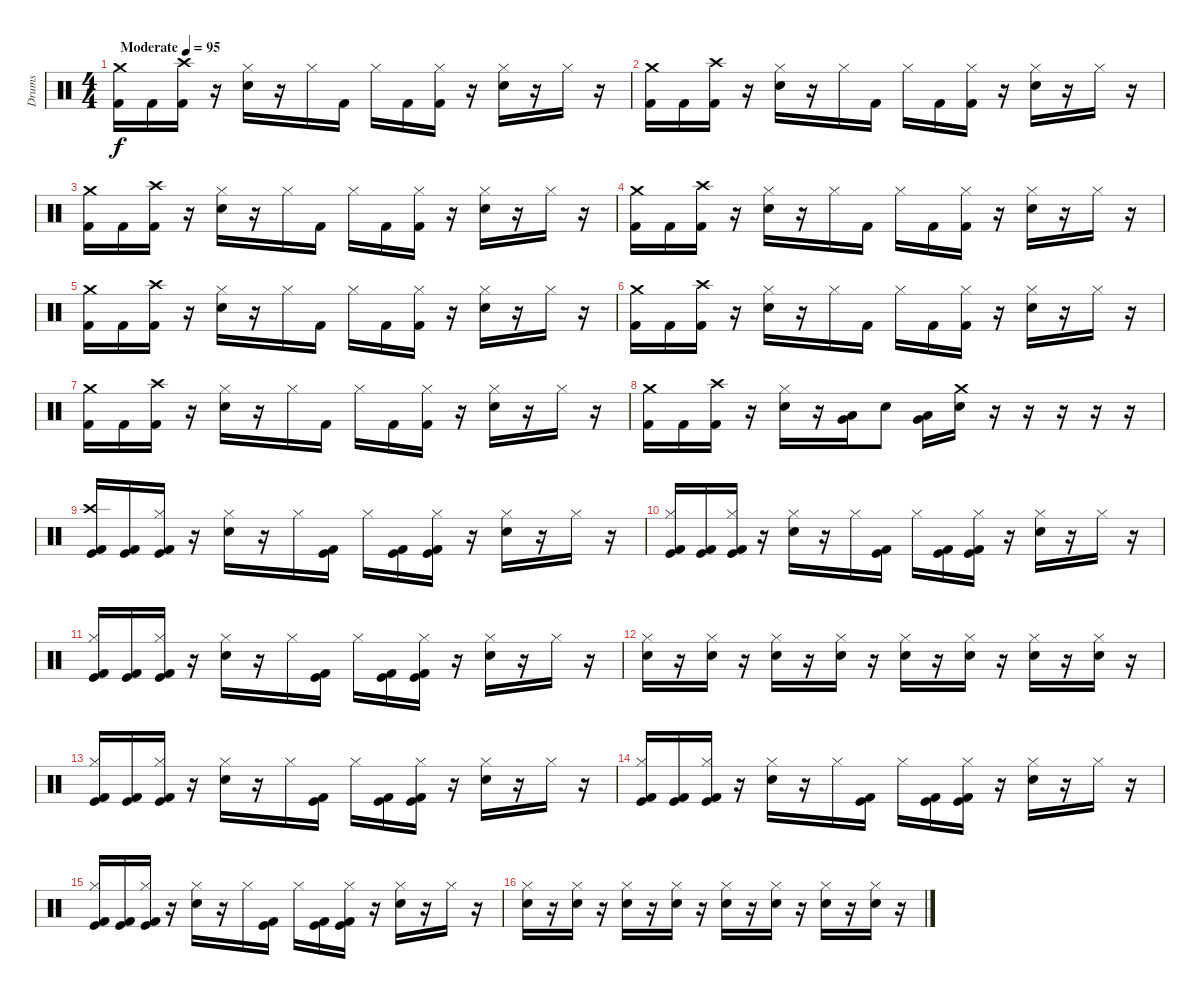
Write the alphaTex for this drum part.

\track ("Drums" "Drums") {instrument percussion}
\staff {score}
\articulation defaults
\ts (4 4)
\tempo (95 "Moderate")
\clef neutral
\ks c
("Crash medium (hit)" "Kick (hit) 2").16{dy f} "Kick (hit) 2".16 ("Crash high (hit)" "Kick (hit) 2").16 r.16 ("Hi-Hat (closed)" "Electric Snare (hit)").16 r.16 "Hi-Hat (closed)".16 "Kick (hit) 2".16 "Hi-Hat (closed)".16 "Kick (hit) 2".16 ("Hi-Hat (closed)" "Kick (hit) 2").16 r.16 ("Hi-Hat (closed)" "Electric Snare (hit)").16 r.16 "Hi-Hat (closed)".16 r.16 |
("Crash medium (hit)" "Kick (hit) 2").16 "Kick (hit) 2".16 ("Crash high (hit)" "Kick (hit) 2").16 r.16 ("Hi-Hat (closed)" "Electric Snare (hit)").16 r.16 "Hi-Hat (closed)".16 "Kick (hit) 2".16 "Hi-Hat (closed)".16 "Kick (hit) 2".16 ("Hi-Hat (closed)" "Kick (hit) 2").16 r.16 ("Hi-Hat (closed)" "Electric Snare (hit)").16 r.16 "Hi-Hat (closed)".16 r.16 |
("Crash medium (hit)" "Kick (hit) 2").16 "Kick (hit) 2".16 ("Crash high (hit)" "Kick (hit) 2").16 r.16 ("Hi-Hat (closed)" "Electric Snare (hit)").16 r.16 "Hi-Hat (closed)".16 "Kick (hit) 2".16 "Hi-Hat (closed)".16 "Kick (hit) 2".16 ("Hi-Hat (closed)" "Kick (hit) 2").16 r.16 ("Hi-Hat (closed)" "Electric Snare (hit)").16 r.16 "Hi-Hat (closed)".16 r.16 |
("Crash medium (hit)" "Kick (hit) 2").16 "Kick (hit) 2".16 ("Crash high (hit)" "Kick (hit) 2").16 r.16 ("Hi-Hat (closed)" "Electric Snare (hit)").16 r.16 "Hi-Hat (closed)".16 "Kick (hit) 2".16 "Hi-Hat (closed)".16 "Kick (hit) 2".16 ("Hi-Hat (closed)" "Kick (hit) 2").16 r.16 ("Hi-Hat (closed)" "Electric Snare (hit)").16 r.16 "Hi-Hat (closed)".16 r.16 |
("Crash medium (hit)" "Kick (hit) 2").16 "Kick (hit) 2".16 ("Crash high (hit)" "Kick (hit) 2").16 r.16 ("Hi-Hat (closed)" "Electric Snare (hit)").16 r.16 "Hi-Hat (closed)".16 "Kick (hit) 2".16 "Hi-Hat (closed)".16 "Kick (hit) 2".16 ("Hi-Hat (closed)" "Kick (hit) 2").16 r.16 ("Hi-Hat (closed)" "Electric Snare (hit)").16 r.16 "Hi-Hat (closed)".16 r.16 |
("Crash medium (hit)" "Kick (hit) 2").16 "Kick (hit) 2".16 ("Crash high (hit)" "Kick (hit) 2").16 r.16 ("Hi-Hat (closed)" "Electric Snare (hit)").16 r.16 "Hi-Hat (closed)".16 "Kick (hit) 2".16 "Hi-Hat (closed)".16 "Kick (hit) 2".16 ("Hi-Hat (closed)" "Kick (hit) 2").16 r.16 ("Hi-Hat (closed)" "Electric Snare (hit)").16 r.16 "Hi-Hat (closed)".16 r.16 |
("Crash medium (hit)" "Kick (hit) 2").16 "Kick (hit) 2".16 ("Crash high (hit)" "Kick (hit) 2").16 r.16 ("Hi-Hat (closed)" "Electric Snare (hit)").16 r.16 "Hi-Hat (closed)".16 "Kick (hit) 2".16 "Hi-Hat (closed)".16 "Kick (hit) 2".16 ("Hi-Hat (closed)" "Kick (hit) 2").16 r.16 ("Hi-Hat (closed)" "Electric Snare (hit)").16 r.16 "Hi-Hat (closed)".16 r.16 |
("Crash medium (hit)" "Kick (hit) 2").16 "Kick (hit) 2".16 ("Crash high (hit)" "Kick (hit) 2").16 r.16 ("Hi-Hat (closed)" "Electric Snare (hit)").16 r.16 ("Very Low Tom (hit)" "Low Tom (hit)").16 "Electric Snare (hit)".8 ("Low Tom (hit)" "Very Low Tom (hit)").16 ("Crash medium (hit)" "Electric Snare (hit)").16 r.16 r.16 r.16 r.16 r.16 |
("Crash high (hit)" "Kick (hit)" "Kick (hit) 2").16 ("Kick (hit)" "Kick (hit) 2").16 ("Hi-Hat (closed)" "Kick (hit)" "Kick (hit) 2").16 r.16 ("Hi-Hat (closed)" "Electric Snare (hit)").16 r.16 "Hi-Hat (closed)".16 ("Kick (hit)" "Kick (hit) 2").16 "Hi-Hat (closed)".16 ("Kick (hit)" "Kick (hit) 2").16 ("Hi-Hat (closed)" "Kick (hit)" "Kick (hit) 2").16 r.16 ("Hi-Hat (closed)" "Electric Snare (hit)").16 r.16 "Hi-Hat (closed)".16 r.16 |
("Hi-Hat (closed)" "Kick (hit)" "Kick (hit) 2").16 ("Kick (hit)" "Kick (hit) 2").16 ("Hi-Hat (closed)" "Kick (hit)" "Kick (hit) 2").16 r.16 ("Hi-Hat (closed)" "Electric Snare (hit)").16 r.16 "Hi-Hat (closed)".16 ("Kick (hit)" "Kick (hit) 2").16 "Hi-Hat (closed)".16 ("Kick (hit)" "Kick (hit) 2").16 ("Hi-Hat (closed)" "Kick (hit)" "Kick (hit) 2").16 r.16 ("Hi-Hat (closed)" "Electric Snare (hit)").16 r.16 "Hi-Hat (closed)".16 r.16 |
("Hi-Hat (closed)" "Kick (hit)" "Kick (hit) 2").16 ("Kick (hit)" "Kick (hit) 2").16 ("Hi-Hat (closed)" "Kick (hit)" "Kick (hit) 2").16 r.16 ("Hi-Hat (closed)" "Electric Snare (hit)").16 r.16 "Hi-Hat (closed)".16 ("Kick (hit)" "Kick (hit) 2").16 "Hi-Hat (closed)".16 ("Kick (hit)" "Kick (hit) 2").16 ("Hi-Hat (closed)" "Kick (hit)" "Kick (hit) 2").16 r.16 ("Hi-Hat (closed)" "Electric Snare (hit)").16 r.16 "Hi-Hat (closed)".16 r.16 |
("Electric Snare (hit)" "Hi-Hat (closed)").16 r.16 ("Electric Snare (hit)" "Hi-Hat (closed)").16 r.16 ("Electric Snare (hit)" "Hi-Hat (closed)").16 r.16 ("Electric Snare (hit)" "Hi-Hat (closed)").16 r.16 ("Electric Snare (hit)" "Hi-Hat (closed)").16 r.16 ("Electric Snare (hit)" "Hi-Hat (closed)").16 r.16 ("Snare (hit) 2" "Hi-Hat (closed)").16 r.16 ("Snare (hit) 2" "Hi-Hat (closed)").16 r.16 |
("Hi-Hat (closed)" "Kick (hit)" "Kick (hit) 2").16 ("Kick (hit)" "Kick (hit) 2").16 ("Hi-Hat (closed)" "Kick (hit)" "Kick (hit) 2").16 r.16 ("Hi-Hat (closed)" "Electric Snare (hit)").16 r.16 "Hi-Hat (closed)".16 ("Kick (hit)" "Kick (hit) 2").16 "Hi-Hat (closed)".16 ("Kick (hit)" "Kick (hit) 2").16 ("Hi-Hat (closed)" "Kick (hit)" "Kick (hit) 2").16 r.16 ("Hi-Hat (closed)" "Electric Snare (hit)").16 r.16 "Hi-Hat (closed)".16 r.16 |
("Hi-Hat (closed)" "Kick (hit)" "Kick (hit) 2").16 ("Kick (hit)" "Kick (hit) 2").16 ("Hi-Hat (closed)" "Kick (hit)" "Kick (hit) 2").16 r.16 ("Hi-Hat (closed)" "Electric Snare (hit)").16 r.16 "Hi-Hat (closed)".16 ("Kick (hit)" "Kick (hit) 2").16 "Hi-Hat (closed)".16 ("Kick (hit)" "Kick (hit) 2").16 ("Hi-Hat (closed)" "Kick (hit)" "Kick (hit) 2").16 r.16 ("Hi-Hat (closed)" "Electric Snare (hit)").16 r.16 "Hi-Hat (closed)".16 r.16 |
("Hi-Hat (closed)" "Kick (hit)" "Kick (hit) 2").16 ("Kick (hit)" "Kick (hit) 2").16 ("Hi-Hat (closed)" "Kick (hit)" "Kick (hit) 2").16 r.16 ("Hi-Hat (closed)" "Electric Snare (hit)").16 r.16 "Hi-Hat (closed)".16 ("Kick (hit)" "Kick (hit) 2").16 "Hi-Hat (closed)".16 ("Kick (hit)" "Kick (hit) 2").16 ("Hi-Hat (closed)" "Kick (hit)" "Kick (hit) 2").16 r.16 ("Hi-Hat (closed)" "Electric Snare (hit)").16 r.16 "Hi-Hat (closed)".16 r.16 |
("Electric Snare (hit)" "Hi-Hat (closed)").16 r.16 ("Electric Snare (hit)" "Hi-Hat (closed)").16 r.16 ("Electric Snare (hit)" "Hi-Hat (closed)").16 r.16 ("Electric Snare (hit)" "Hi-Hat (closed)").16 r.16 ("Electric Snare (hit)" "Hi-Hat (closed)").16 r.16 ("Electric Snare (hit)" "Hi-Hat (closed)").16 r.16 ("Snare (hit) 2" "Hi-Hat (closed)").16 r.16 ("Snare (hit) 2" "Hi-Hat (closed)").16 r.16
